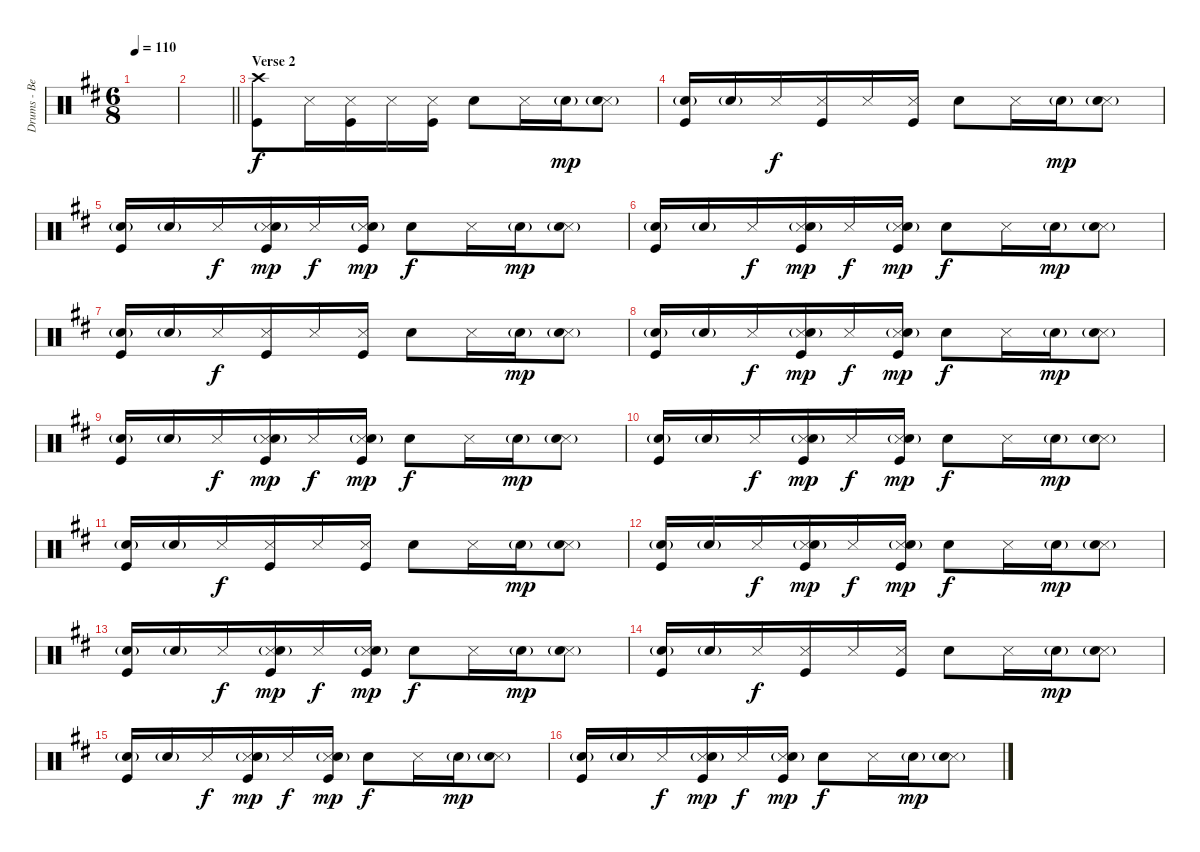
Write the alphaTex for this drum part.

\track ("Drums - Ben Johnston" "Drums - Be") {instrument percussion}
\staff {score}
\articulation defaults
\ts (6 8)
\tempo 110
\clef neutral
\ks d
|
\barLineRight lightlight
|
\section ("" "Verse 2")
("Crash high (hit)" "Kick (hit)").8 "Snare (side stick) 3".16 ("Snare (side stick) 3" "Kick (hit)").16 "Snare (side stick) 3".16 ("Snare (side stick) 3" "Kick (hit)").16 "Snare (hit) 2".8 "Snare (side stick) 3".16 "Snare (hit) 2"{g}.16{dy mp} ("Snare (side stick) 3" "Snare (hit) 2"{g}).8 |
("Snare (hit) 2"{g} "Kick (hit)").16 "Snare (hit) 2"{g}.16 "Snare (side stick) 3".16{dy f} ("Snare (side stick) 3" "Kick (hit)").16 "Snare (side stick) 3".16 ("Snare (side stick) 3" "Kick (hit)").16 "Snare (hit) 2".8 "Snare (side stick) 3".16 "Snare (hit) 2"{g}.16{dy mp} ("Snare (side stick) 3" "Snare (hit) 2"{g}).8 |
("Snare (hit) 2"{g} "Kick (hit)").16 "Snare (hit) 2"{g}.16 "Snare (side stick) 3".16{dy f} ("Snare (side stick) 3" "Snare (hit) 2"{g} "Kick (hit)").16{dy mp} "Snare (side stick) 3".16{dy f} ("Snare (side stick) 3" "Snare (hit) 2"{g} "Kick (hit)").16{dy mp} "Snare (hit) 2".8{dy f} "Snare (side stick) 3".16 "Snare (hit) 2"{g}.16{dy mp} ("Snare (side stick) 3" "Snare (hit) 2"{g}).8 |
("Snare (hit) 2"{g} "Kick (hit)").16 "Snare (hit) 2"{g}.16 "Snare (side stick) 3".16{dy f} ("Snare (side stick) 3" "Snare (hit) 2"{g} "Kick (hit)").16{dy mp} "Snare (side stick) 3".16{dy f} ("Snare (side stick) 3" "Snare (hit) 2"{g} "Kick (hit)").16{dy mp} "Snare (hit) 2".8{dy f} "Snare (side stick) 3".16 "Snare (hit) 2"{g}.16{dy mp} ("Snare (side stick) 3" "Snare (hit) 2"{g}).8 |
("Snare (hit) 2"{g} "Kick (hit)").16 "Snare (hit) 2"{g}.16 "Snare (side stick) 3".16{dy f} ("Snare (side stick) 3" "Kick (hit)").16 "Snare (side stick) 3".16 ("Snare (side stick) 3" "Kick (hit)").16 "Snare (hit) 2".8 "Snare (side stick) 3".16 "Snare (hit) 2"{g}.16{dy mp} ("Snare (side stick) 3" "Snare (hit) 2"{g}).8 |
("Snare (hit) 2"{g} "Kick (hit)").16 "Snare (hit) 2"{g}.16 "Snare (side stick) 3".16{dy f} ("Snare (side stick) 3" "Snare (hit) 2"{g} "Kick (hit)").16{dy mp} "Snare (side stick) 3".16{dy f} ("Snare (side stick) 3" "Snare (hit) 2"{g} "Kick (hit)").16{dy mp} "Snare (hit) 2".8{dy f} "Snare (side stick) 3".16 "Snare (hit) 2"{g}.16{dy mp} ("Snare (side stick) 3" "Snare (hit) 2"{g}).8 |
("Snare (hit) 2"{g} "Kick (hit)").16 "Snare (hit) 2"{g}.16 "Snare (side stick) 3".16{dy f} ("Snare (side stick) 3" "Snare (hit) 2"{g} "Kick (hit)").16{dy mp} "Snare (side stick) 3".16{dy f} ("Snare (side stick) 3" "Snare (hit) 2"{g} "Kick (hit)").16{dy mp} "Snare (hit) 2".8{dy f} "Snare (side stick) 3".16 "Snare (hit) 2"{g}.16{dy mp} ("Snare (side stick) 3" "Snare (hit) 2"{g}).8 |
("Snare (hit) 2"{g} "Kick (hit)").16 "Snare (hit) 2"{g}.16 "Snare (side stick) 3".16{dy f} ("Snare (side stick) 3" "Snare (hit) 2"{g} "Kick (hit)").16{dy mp} "Snare (side stick) 3".16{dy f} ("Snare (side stick) 3" "Snare (hit) 2"{g} "Kick (hit)").16{dy mp} "Snare (hit) 2".8{dy f} "Snare (side stick) 3".16 "Snare (hit) 2"{g}.16{dy mp} ("Snare (side stick) 3" "Snare (hit) 2"{g}).8 |
("Snare (hit) 2"{g} "Kick (hit)").16 "Snare (hit) 2"{g}.16 "Snare (side stick) 3".16{dy f} ("Snare (side stick) 3" "Kick (hit)").16 "Snare (side stick) 3".16 ("Snare (side stick) 3" "Kick (hit)").16 "Snare (hit) 2".8 "Snare (side stick) 3".16 "Snare (hit) 2"{g}.16{dy mp} ("Snare (side stick) 3" "Snare (hit) 2"{g}).8 |
("Snare (hit) 2"{g} "Kick (hit)").16 "Snare (hit) 2"{g}.16 "Snare (side stick) 3".16{dy f} ("Snare (side stick) 3" "Snare (hit) 2"{g} "Kick (hit)").16{dy mp} "Snare (side stick) 3".16{dy f} ("Snare (side stick) 3" "Snare (hit) 2"{g} "Kick (hit)").16{dy mp} "Snare (hit) 2".8{dy f} "Snare (side stick) 3".16 "Snare (hit) 2"{g}.16{dy mp} ("Snare (side stick) 3" "Snare (hit) 2"{g}).8 |
("Snare (hit) 2"{g} "Kick (hit)").16 "Snare (hit) 2"{g}.16 "Snare (side stick) 3".16{dy f} ("Snare (side stick) 3" "Snare (hit) 2"{g} "Kick (hit)").16{dy mp} "Snare (side stick) 3".16{dy f} ("Snare (side stick) 3" "Snare (hit) 2"{g} "Kick (hit)").16{dy mp} "Snare (hit) 2".8{dy f} "Snare (side stick) 3".16 "Snare (hit) 2"{g}.16{dy mp} ("Snare (side stick) 3" "Snare (hit) 2"{g}).8 |
("Snare (hit) 2"{g} "Kick (hit)").16 "Snare (hit) 2"{g}.16 "Snare (side stick) 3".16{dy f} ("Snare (side stick) 3" "Kick (hit)").16 "Snare (side stick) 3".16 ("Snare (side stick) 3" "Kick (hit)").16 "Snare (hit) 2".8 "Snare (side stick) 3".16 "Snare (hit) 2"{g}.16{dy mp} ("Snare (side stick) 3" "Snare (hit) 2"{g}).8 |
("Snare (hit) 2"{g} "Kick (hit)").16 "Snare (hit) 2"{g}.16 "Snare (side stick) 3".16{dy f} ("Snare (side stick) 3" "Snare (hit) 2"{g} "Kick (hit)").16{dy mp} "Snare (side stick) 3".16{dy f} ("Snare (side stick) 3" "Snare (hit) 2"{g} "Kick (hit)").16{dy mp} "Snare (hit) 2".8{dy f} "Snare (side stick) 3".16 "Snare (hit) 2"{g}.16{dy mp} ("Snare (side stick) 3" "Snare (hit) 2"{g}).8 |
("Snare (hit) 2"{g} "Kick (hit)").16 "Snare (hit) 2"{g}.16 "Snare (side stick) 3".16{dy f} ("Snare (side stick) 3" "Snare (hit) 2"{g} "Kick (hit)").16{dy mp} "Snare (side stick) 3".16{dy f} ("Snare (side stick) 3" "Snare (hit) 2"{g} "Kick (hit)").16{dy mp} "Snare (hit) 2".8{dy f} "Snare (side stick) 3".16 "Snare (hit) 2"{g}.16{dy mp} ("Snare (side stick) 3" "Snare (hit) 2"{g}).8
